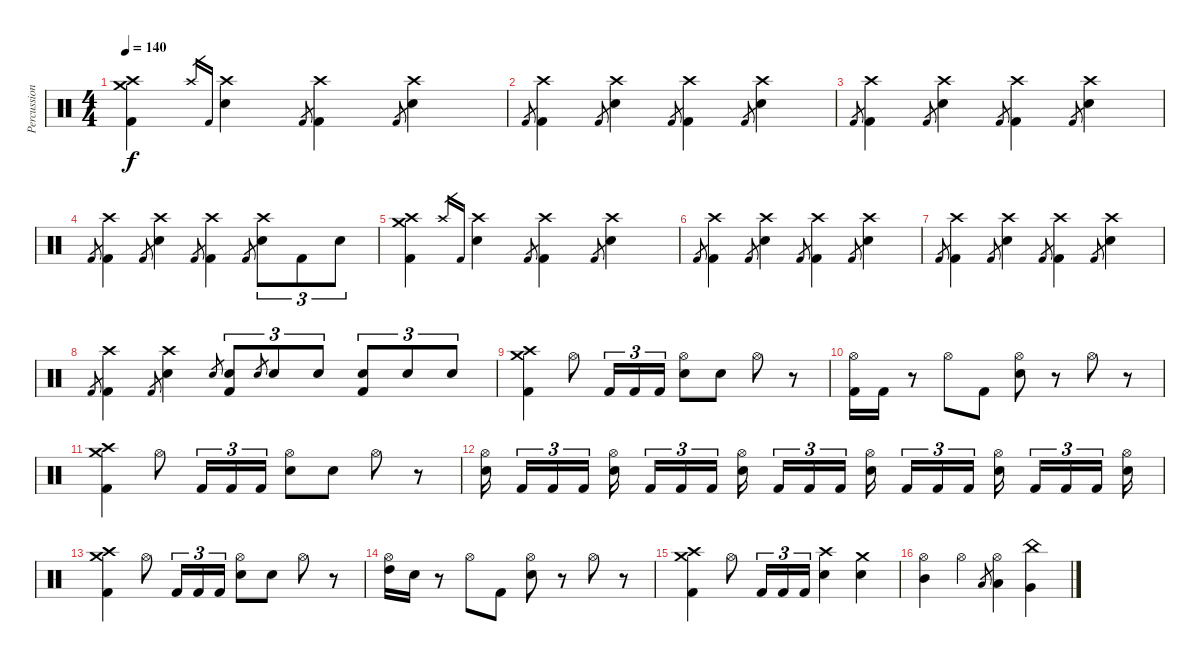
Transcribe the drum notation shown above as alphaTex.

\track ("Percussion" "Percussion") {instrument percussion}
\staff {score}
\articulation defaults
\ts (4 4)
\tempo 140
\clef neutral
\ks c
("Crash medium (hit)" "Crash high (hit)" "Kick (hit) 2").4{dy f} "Crash high (hit)".16{gr} "Kick (hit) 2".16{gr} ("Crash high (hit)" "Electric Snare (hit)").4 "Kick (hit) 2".8{gr} ("Crash high (hit)" "Kick (hit) 2").4 "Kick (hit) 2".8{gr} ("Crash high (hit)" "Electric Snare (hit)").4 |
"Kick (hit) 2".8{gr} ("Crash high (hit)" "Kick (hit) 2").4 "Kick (hit) 2".8{gr} ("Crash high (hit)" "Electric Snare (hit)").4 "Kick (hit) 2".8{gr} ("Crash high (hit)" "Kick (hit) 2").4 "Kick (hit) 2".8{gr} ("Crash high (hit)" "Electric Snare (hit)").4 |
"Kick (hit) 2".8{gr} ("Crash high (hit)" "Kick (hit) 2").4 "Kick (hit) 2".8{gr} ("Crash high (hit)" "Electric Snare (hit)").4 "Kick (hit) 2".8{gr} ("Crash high (hit)" "Kick (hit) 2").4 "Kick (hit) 2".8{gr} ("Crash high (hit)" "Electric Snare (hit)").4 |
"Kick (hit) 2".8{gr} ("Crash high (hit)" "Kick (hit) 2").4 "Kick (hit) 2".8{gr} ("Crash high (hit)" "Electric Snare (hit)").4 "Kick (hit) 2".8{gr} ("Crash high (hit)" "Kick (hit) 2").4 "Kick (hit) 2".8{gr} ("Crash high (hit)" "Electric Snare (hit)").8{tu (3 2)} "Kick (hit) 2".8{tu (3 2)} "Electric Snare (hit)".8{tu (3 2)} |
("Crash medium (hit)" "Crash high (hit)" "Kick (hit) 2").4 "Crash high (hit)".16{gr} "Kick (hit) 2".16{gr} ("Crash high (hit)" "Electric Snare (hit)").4 "Kick (hit) 2".8{gr} ("Crash high (hit)" "Kick (hit) 2").4 "Kick (hit) 2".8{gr} ("Crash high (hit)" "Electric Snare (hit)").4 |
"Kick (hit) 2".8{gr} ("Crash high (hit)" "Kick (hit) 2").4 "Kick (hit) 2".8{gr} ("Crash high (hit)" "Electric Snare (hit)").4 "Kick (hit) 2".8{gr} ("Crash high (hit)" "Kick (hit) 2").4 "Kick (hit) 2".8{gr} ("Crash high (hit)" "Electric Snare (hit)").4 |
"Kick (hit) 2".8{gr} ("Crash high (hit)" "Kick (hit) 2").4 "Kick (hit) 2".8{gr} ("Crash high (hit)" "Electric Snare (hit)").4 "Kick (hit) 2".8{gr} ("Crash high (hit)" "Kick (hit) 2").4 "Kick (hit) 2".8{gr} ("Crash high (hit)" "Electric Snare (hit)").4 |
"Kick (hit) 2".8{gr} ("Crash high (hit)" "Kick (hit) 2").4 "Kick (hit) 2".8{gr} ("Crash high (hit)" "Electric Snare (hit)").4 "Electric Snare (hit)".8{gr} ("Electric Snare (hit)" "Kick (hit) 2").8{tu (3 2)} "Electric Snare (hit)".8{gr} "Electric Snare (hit)".8{tu (3 2)} "Electric Snare (hit)".8{tu (3 2)} ("Electric Snare (hit)" "Kick (hit) 2").8{tu (3 2)} "Electric Snare (hit)".8{tu (3 2)} "Electric Snare (hit)".8{tu (3 2)} |
("Crash medium (hit)" "Crash high (hit)" "Kick (hit) 2").4 "Hi-Hat (open)".8 "Kick (hit) 2".16{tu (3 2)} "Kick (hit) 2".16{tu (3 2)} "Kick (hit) 2".16{tu (3 2)} ("Hi-Hat (open)" "Electric Snare (hit)").8 "Electric Snare (hit)".8 "Hi-Hat (open)".8 r.8 |
("Hi-Hat (open)" "Kick (hit) 2").16 "Kick (hit) 2".16 r.8 "Hi-Hat (open)".8 "Kick (hit) 2".8 ("Hi-Hat (open)" "Electric Snare (hit)").8 r.8 "Hi-Hat (open)".8 r.8 |
("Crash medium (hit)" "Crash high (hit)" "Kick (hit) 2").4 "Hi-Hat (open)".8 "Kick (hit) 2".16{tu (3 2)} "Kick (hit) 2".16{tu (3 2)} "Kick (hit) 2".16{tu (3 2)} ("Hi-Hat (open)" "Electric Snare (hit)").8 "Electric Snare (hit)".8 "Hi-Hat (open)".8 r.8 |
("Hi-Hat (open)" "Electric Snare (hit)").16{beam splitsecondary} "Kick (hit) 2".16{tu (3 2)} "Kick (hit) 2".16{tu (3 2)} "Kick (hit) 2".16{tu (3 2) beam splitsecondary} ("Hi-Hat (open)" "Electric Snare (hit)").16 "Kick (hit) 2".16{tu (3 2)} "Kick (hit) 2".16{tu (3 2)} "Kick (hit) 2".16{tu (3 2) beam splitsecondary} ("Hi-Hat (open)" "Electric Snare (hit)").16{beam splitsecondary} "Kick (hit) 2".16{tu (3 2)} "Kick (hit) 2".16{tu (3 2)} "Kick (hit) 2".16{tu (3 2) beam splitsecondary} ("Hi-Hat (open)" "Electric Snare (hit)").16{beam splitsecondary} "Kick (hit) 2".16{tu (3 2)} "Kick (hit) 2".16{tu (3 2)} "Kick (hit) 2".16{tu (3 2)} ("Hi-Hat (open)" "Electric Snare (hit)").16{beam splitsecondary} "Kick (hit) 2".16{tu (3 2)} "Kick (hit) 2".16{tu (3 2)} "Kick (hit) 2".16{tu (3 2) beam splitsecondary} ("Hi-Hat (open)" "Electric Snare (hit)").16 |
("Crash medium (hit)" "Crash high (hit)" "Kick (hit) 2").4 "Hi-Hat (open)".8 "Kick (hit) 2".16{tu (3 2)} "Kick (hit) 2".16{tu (3 2)} "Kick (hit) 2".16{tu (3 2)} ("Hi-Hat (open)" "Electric Snare (hit)").8 "Electric Snare (hit)".8 "Hi-Hat (open)".8 r.8 |
("Hi-Hat (open)" "High Tom (hit)").16 "Electric Snare (hit)".16 r.8 "Hi-Hat (open)".8 "Kick (hit) 2".8 ("Hi-Hat (open)" "Electric Snare (hit)").8 r.8 "Hi-Hat (open)".8 r.8 |
("Crash medium (hit)" "Crash high (hit)" "Kick (hit) 2").4 "Hi-Hat (open)".8 "Kick (hit) 2".16{tu (3 2)} "Kick (hit) 2".16{tu (3 2)} "Kick (hit) 2".16{tu (3 2)} ("Crash high (hit)" "Electric Snare (hit)").4 ("Crash medium (hit)" "Electric Snare (hit)").4 |
("Hi-Hat (open)" "Mid Tom (hit)").4 "Hi-Hat (open)".4 "Low Tom (hit)".8{gr} ("Hi-Hat (open)" "Low Tom (hit)").4 ("China (hit)" "Very Low Tom (hit)").4
